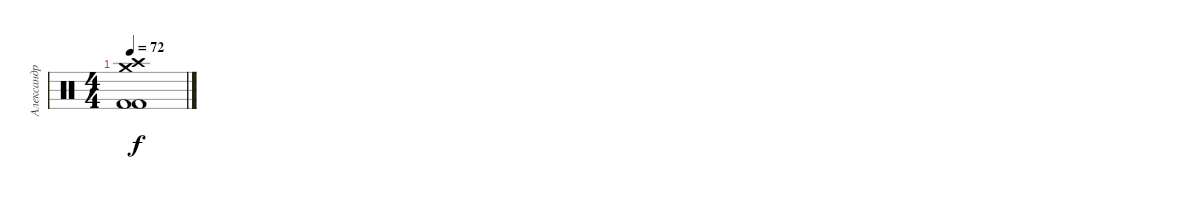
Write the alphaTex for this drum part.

\track ("Александр Манякин (Drums)" "Александр ") {instrument percussion}
\staff {score}
\articulation defaults
\ts (4 4)
\tempo 72
\clef neutral
\ks c
("Crash high (hit)" "Crash medium (hit)" "Kick (hit) 2" "Kick (hit) 2").1{dy f}
